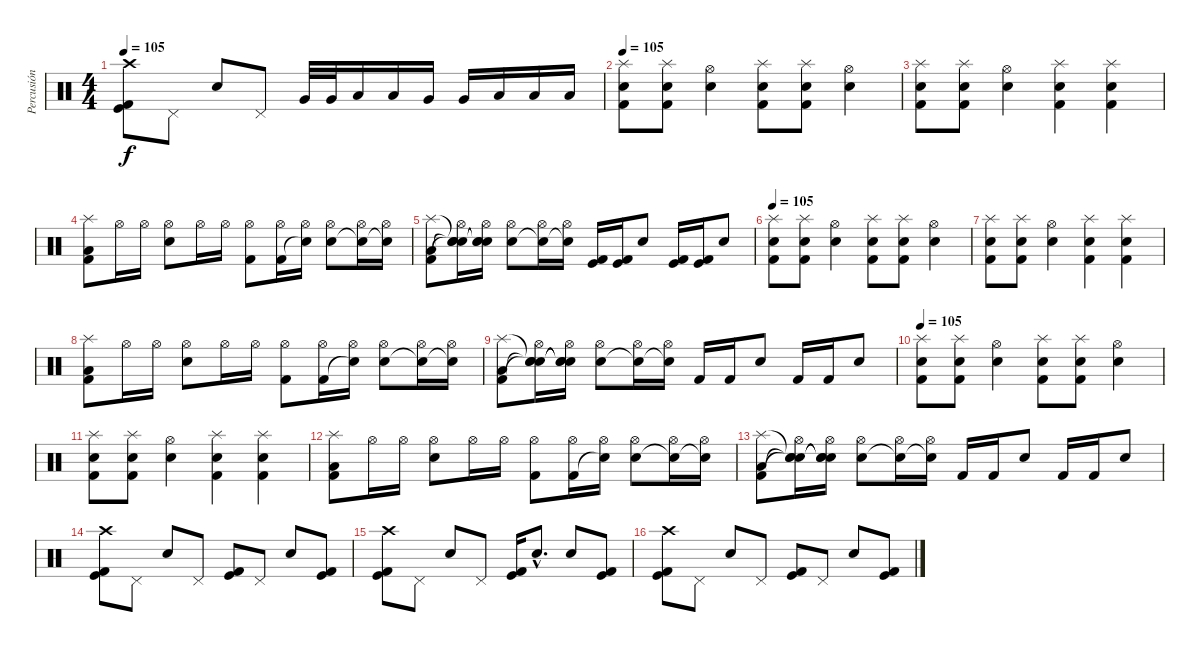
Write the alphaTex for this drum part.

\track ("Percusión" "Percusión") {instrument percussion}
\staff {score}
\articulation defaults
\ts (4 4)
\tempo 105
\clef neutral
\ks c
("Kick (hit) 2" "Kick (hit)" "Crash high (hit)").8{dy f} "Pedal Hi-Hat (hit)".8 "Electric Snare (hit)".8 "Pedal Hi-Hat (hit)".8 "Very Low Tom (hit)".32 "Very Low Tom (hit)".32 "Low Tom (hit)".16 "Low Tom (hit)".16 "Very Low Tom (hit)".16 "Very Low Tom (hit)".16 "Low Floor Tom (hit)".16 "Low Floor Tom (hit)".16 "Low Floor Tom (hit)".16 |
\tempo 105
("Splash (hit)" "Kick (hit) 2" "Electric Snare (hit)").8 ("Splash (hit)" "Kick (hit) 2" "Electric Snare (hit)").8 ("Electric Snare (hit)" "Hi-Hat (open)").4 ("Splash (hit)" "Kick (hit) 2" "Electric Snare (hit)").8 ("Splash (hit)" "Kick (hit) 2" "Electric Snare (hit)").8 ("Electric Snare (hit)" "Hi-Hat (open)").4 |
("Splash (hit)" "Kick (hit) 2" "Electric Snare (hit)").8 ("Splash (hit)" "Kick (hit) 2" "Electric Snare (hit)").8 ("Electric Snare (hit)" "Hi-Hat (open)").4 ("Splash (hit)" "Kick (hit) 2" "Electric Snare (hit)").4 ("Splash (hit)" "Kick (hit) 2" "Electric Snare (hit)").4 |
("Kick (hit) 2" "Low Tom (hit)" "Splash (hit)").8 "Hi-Hat (open)".16 "Hi-Hat (open)".16 ("Electric Snare (hit)" "Hi-Hat (open)").8 "Hi-Hat (open)".16 "Hi-Hat (open)".16 ("Kick (hit) 2" "Hi-Hat (open)").8 ("Kick (hit) 2" "Hi-Hat (open)").16 ("Snare (hit)"{t} "Hi-Hat (open)").16 ("Electric Snare (hit)" "Hi-Hat (open)").8 ("Snare (hit)"{t} "Hi-Hat (open)").16 ("Snare (hit)"{t} "Hi-Hat (open)").16 |
("Kick (hit) 2" "Low Tom (hit)" "Splash (hit)").8 ("Snare (hit)"{t} "Snare (hit)"{t} "Snare (hit)"{t} "Hi-Hat (open)").16 ("Snare (hit)"{t} "Snare (hit)"{t} "Snare (hit)"{t} "Hi-Hat (open)").16 ("Electric Snare (hit)" "Hi-Hat (open)").8 ("Snare (hit)"{t} "Hi-Hat (open)").16 ("Snare (hit)"{t} "Hi-Hat (open)").16 ("Kick (hit) 2" "Kick (hit)").16 ("Kick (hit) 2" "Kick (hit)").16 "Electric Snare (hit)".8 ("Kick (hit) 2" "Kick (hit)").16 ("Kick (hit) 2" "Kick (hit)").16 "Electric Snare (hit)".8 |
\tempo 105
("Splash (hit)" "Kick (hit) 2" "Electric Snare (hit)").8 ("Splash (hit)" "Kick (hit) 2" "Electric Snare (hit)").8 ("Electric Snare (hit)" "Hi-Hat (open)").4 ("Splash (hit)" "Kick (hit) 2" "Electric Snare (hit)").8 ("Splash (hit)" "Kick (hit) 2" "Electric Snare (hit)").8 ("Electric Snare (hit)" "Hi-Hat (open)").4 |
("Splash (hit)" "Kick (hit) 2" "Electric Snare (hit)").8 ("Splash (hit)" "Kick (hit) 2" "Electric Snare (hit)").8 ("Electric Snare (hit)" "Hi-Hat (open)").4 ("Splash (hit)" "Kick (hit) 2" "Electric Snare (hit)").4 ("Splash (hit)" "Kick (hit) 2" "Electric Snare (hit)").4 |
("Kick (hit) 2" "Low Tom (hit)" "Splash (hit)").8 "Hi-Hat (open)".16 "Hi-Hat (open)".16 ("Electric Snare (hit)" "Hi-Hat (open)").8 "Hi-Hat (open)".16 "Hi-Hat (open)".16 ("Kick (hit) 2" "Hi-Hat (open)").8 ("Kick (hit) 2" "Hi-Hat (open)").16 ("Snare (hit)"{t} "Hi-Hat (open)").16 ("Electric Snare (hit)" "Hi-Hat (open)").8 ("Snare (hit)"{t} "Hi-Hat (open)").16 ("Snare (hit)"{t} "Hi-Hat (open)").16 |
("Kick (hit) 2" "Low Tom (hit)" "Splash (hit)").8 ("Snare (hit)"{t} "Snare (hit)"{t} "Snare (hit)"{t} "Hi-Hat (open)").16 ("Snare (hit)"{t} "Snare (hit)"{t} "Snare (hit)"{t} "Hi-Hat (open)").16 ("Electric Snare (hit)" "Hi-Hat (open)").8 ("Snare (hit)"{t} "Hi-Hat (open)").16 ("Snare (hit)"{t} "Hi-Hat (open)").16 "Kick (hit) 2".16 "Kick (hit) 2".16 "Electric Snare (hit)".8 "Kick (hit) 2".16 "Kick (hit) 2".16 "Electric Snare (hit)".8 |
\tempo 105
("Splash (hit)" "Kick (hit) 2" "Electric Snare (hit)").8 ("Splash (hit)" "Kick (hit) 2" "Electric Snare (hit)").8 ("Electric Snare (hit)" "Hi-Hat (open)").4 ("Splash (hit)" "Kick (hit) 2" "Electric Snare (hit)").8 ("Splash (hit)" "Kick (hit) 2" "Electric Snare (hit)").8 ("Electric Snare (hit)" "Hi-Hat (open)").4 |
("Splash (hit)" "Kick (hit) 2" "Electric Snare (hit)").8 ("Splash (hit)" "Kick (hit) 2" "Electric Snare (hit)").8 ("Electric Snare (hit)" "Hi-Hat (open)").4 ("Splash (hit)" "Kick (hit) 2" "Electric Snare (hit)").4 ("Splash (hit)" "Kick (hit) 2" "Electric Snare (hit)").4 |
("Kick (hit) 2" "Low Tom (hit)" "Splash (hit)").8 "Hi-Hat (open)".16 "Hi-Hat (open)".16 ("Electric Snare (hit)" "Hi-Hat (open)").8 "Hi-Hat (open)".16 "Hi-Hat (open)".16 ("Kick (hit) 2" "Hi-Hat (open)").8 ("Kick (hit) 2" "Hi-Hat (open)").16 ("Snare (hit)"{t} "Hi-Hat (open)").16 ("Electric Snare (hit)" "Hi-Hat (open)").8 ("Snare (hit)"{t} "Hi-Hat (open)").16 ("Snare (hit)"{t} "Hi-Hat (open)").16 |
("Kick (hit) 2" "Low Tom (hit)" "Splash (hit)").8 ("Snare (hit)"{t} "Snare (hit)"{t} "Snare (hit)"{t} "Hi-Hat (open)").16 ("Snare (hit)"{t} "Snare (hit)"{t} "Snare (hit)"{t} "Hi-Hat (open)").16 ("Electric Snare (hit)" "Hi-Hat (open)").8 ("Snare (hit)"{t} "Hi-Hat (open)").16 ("Snare (hit)"{t} "Hi-Hat (open)").16 "Kick (hit) 2".16 "Kick (hit) 2".16 "Electric Snare (hit)".8 "Kick (hit) 2".16 "Kick (hit) 2".16 "Electric Snare (hit)".8 |
("Kick (hit) 2" "Kick (hit)" "Crash high (hit)").8 "Pedal Hi-Hat (hit)".8 "Electric Snare (hit)".8 "Pedal Hi-Hat (hit)".8 ("Kick (hit) 2" "Kick (hit)").8 "Pedal Hi-Hat (hit)".8 "Electric Snare (hit)".8 ("Kick (hit) 2" "Kick (hit)").8 |
("Kick (hit) 2" "Kick (hit)" "Crash high (hit)").8 "Pedal Hi-Hat (hit)".8 "Electric Snare (hit)".8 "Pedal Hi-Hat (hit)".8 ("Kick (hit) 2" "Kick (hit)").16 "Electric Snare (hit)"{hac}.8{d} "Electric Snare (hit)".8 ("Kick (hit) 2" "Kick (hit)").8 |
("Kick (hit) 2" "Kick (hit)" "Crash high (hit)").8 "Pedal Hi-Hat (hit)".8 "Electric Snare (hit)".8 "Pedal Hi-Hat (hit)".8 ("Kick (hit) 2" "Kick (hit)").8 "Pedal Hi-Hat (hit)".8 "Electric Snare (hit)".8 ("Kick (hit) 2" "Kick (hit)").8
